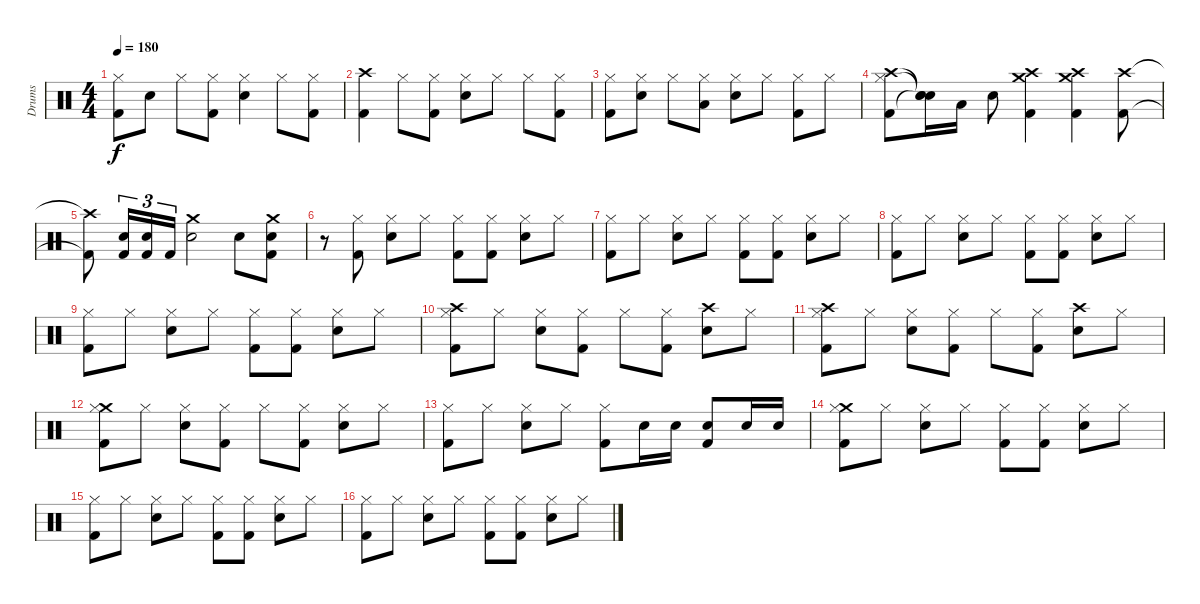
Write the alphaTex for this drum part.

\track ("Drums" "Drums") {instrument percussion}
\staff {score}
\articulation defaults
\ts (4 4)
\tempo 180
\clef neutral
\ks c
("Hi-Hat (closed)" "Kick (hit) 2").8{dy f} "Electric Snare (hit)".8 "Hi-Hat (closed)".8 ("Hi-Hat (closed)" "Kick (hit) 2").8 ("Hi-Hat (closed)" "Electric Snare (hit)").4 "Hi-Hat (closed)".8 ("Hi-Hat (closed)" "Kick (hit) 2").8 |
("Crash high (hit)" "Kick (hit) 2").4 "Hi-Hat (closed)".8 ("Hi-Hat (closed)" "Kick (hit) 2").8 ("Hi-Hat (closed)" "Electric Snare (hit)").8 "Hi-Hat (closed)".8 "Hi-Hat (closed)".8 ("Hi-Hat (closed)" "Kick (hit) 2").8 |
("Hi-Hat (closed)" "Kick (hit) 2").8 ("Hi-Hat (closed)" "Electric Snare (hit)").8 "Hi-Hat (closed)".8 ("Hi-Hat (closed)" "Low Tom (hit)").8 ("Hi-Hat (closed)" "Electric Snare (hit)").8 "Hi-Hat (closed)".8 ("Hi-Hat (closed)" "Kick (hit) 2").8 "Hi-Hat (closed)".8 |
("Crash high (hit)" "Hi-Hat (closed)" "Kick (hit) 2").8 ("Snare (hit)"{t} "Snare (hit)"{t} "Snare (hit)"{t}).16 "Low Tom (hit)".16 "Electric Snare (hit)".8 ("Crash medium (hit)" "Crash high (hit)" "Kick (hit) 2").4 ("Crash medium (hit)" "Crash high (hit)" "Kick (hit) 2").4 ("Crash high (hit)" "Kick (hit) 2").8 |
("Crash high (hit)"{t} "Kick (hit) 2"{t}).8 ("Electric Snare (hit)" "Kick (hit) 2").16{tu (3 2)} ("Electric Snare (hit)" "Kick (hit) 2").16{tu (3 2)} "Kick (hit) 2".16{tu (3 2)} ("Crash medium (hit)" "Electric Snare (hit)").2 "Electric Snare (hit)".8 ("Crash medium (hit)" "Electric Snare (hit)" "Kick (hit) 2").8 |
\section ("" "")
r.8 ("Hi-Hat (closed)" "Kick (hit) 2").8 ("Hi-Hat (closed)" "Electric Snare (hit)").8 "Hi-Hat (closed)".8 ("Hi-Hat (closed)" "Kick (hit) 2").8 ("Hi-Hat (closed)" "Kick (hit) 2").8 ("Hi-Hat (closed)" "Electric Snare (hit)").8 "Hi-Hat (closed)".8 |
("Hi-Hat (closed)" "Kick (hit) 2").8 "Hi-Hat (closed)".8 ("Hi-Hat (closed)" "Electric Snare (hit)").8 "Hi-Hat (closed)".8 ("Hi-Hat (closed)" "Kick (hit) 2").8 ("Hi-Hat (closed)" "Kick (hit) 2").8 ("Hi-Hat (closed)" "Electric Snare (hit)").8 "Hi-Hat (closed)".8 |
("Hi-Hat (closed)" "Kick (hit) 2").8 "Hi-Hat (closed)".8 ("Hi-Hat (closed)" "Electric Snare (hit)").8 "Hi-Hat (closed)".8 ("Hi-Hat (closed)" "Kick (hit) 2").8 ("Hi-Hat (closed)" "Kick (hit) 2").8 ("Hi-Hat (closed)" "Electric Snare (hit)").8 "Hi-Hat (closed)".8 |
("Hi-Hat (closed)" "Kick (hit) 2").8 "Hi-Hat (closed)".8 ("Hi-Hat (closed)" "Electric Snare (hit)").8 "Hi-Hat (closed)".8 ("Hi-Hat (closed)" "Kick (hit) 2").8 ("Hi-Hat (closed)" "Kick (hit) 2").8 ("Hi-Hat (closed)" "Electric Snare (hit)").8 "Hi-Hat (closed)".8 |
("Crash high (hit)" "Hi-Hat (closed)" "Kick (hit) 2").8 "Hi-Hat (closed)".8 ("Hi-Hat (closed)" "Electric Snare (hit)").8 ("Hi-Hat (closed)" "Kick (hit) 2").8 "Hi-Hat (closed)".8 ("Hi-Hat (closed)" "Kick (hit) 2").8 ("Crash high (hit)" "Electric Snare (hit)").8 "Hi-Hat (closed)".8 |
("Crash high (hit)" "Hi-Hat (closed)" "Kick (hit) 2").8 "Hi-Hat (closed)".8 ("Hi-Hat (closed)" "Electric Snare (hit)").8 ("Hi-Hat (closed)" "Kick (hit) 2").8 "Hi-Hat (closed)".8 ("Hi-Hat (closed)" "Kick (hit) 2").8 ("Crash high (hit)" "Electric Snare (hit)").8 "Hi-Hat (closed)".8 |
("Crash medium (hit)" "Hi-Hat (closed)" "Kick (hit) 2").8 "Hi-Hat (closed)".8 ("Hi-Hat (closed)" "Electric Snare (hit)").8 ("Hi-Hat (closed)" "Kick (hit) 2").8 "Hi-Hat (closed)".8 ("Hi-Hat (closed)" "Kick (hit) 2").8 ("Hi-Hat (closed)" "Electric Snare (hit)").8 "Hi-Hat (closed)".8 |
("Hi-Hat (closed)" "Kick (hit) 2").8 "Hi-Hat (closed)".8 ("Hi-Hat (closed)" "Electric Snare (hit)").8 "Hi-Hat (closed)".8 ("Hi-Hat (closed)" "Kick (hit) 2").8 "Electric Snare (hit)".16 "Electric Snare (hit)".16 ("Electric Snare (hit)" "Kick (hit) 2").8 "Electric Snare (hit)".16 "Electric Snare (hit)".16 |
("Crash medium (hit)" "Hi-Hat (closed)" "Kick (hit) 2").8 "Hi-Hat (closed)".8 ("Hi-Hat (closed)" "Electric Snare (hit)").8 "Hi-Hat (closed)".8 ("Hi-Hat (closed)" "Kick (hit) 2").8 ("Hi-Hat (closed)" "Kick (hit) 2").8 ("Hi-Hat (closed)" "Electric Snare (hit)").8 "Hi-Hat (closed)".8 |
("Hi-Hat (closed)" "Kick (hit) 2").8 "Hi-Hat (closed)".8 ("Hi-Hat (closed)" "Electric Snare (hit)").8 "Hi-Hat (closed)".8 ("Hi-Hat (closed)" "Kick (hit) 2").8 ("Hi-Hat (closed)" "Kick (hit) 2").8 ("Hi-Hat (closed)" "Electric Snare (hit)").8 "Hi-Hat (closed)".8 |
("Hi-Hat (closed)" "Kick (hit) 2").8 "Hi-Hat (closed)".8 ("Hi-Hat (closed)" "Electric Snare (hit)").8 "Hi-Hat (closed)".8 ("Hi-Hat (closed)" "Kick (hit) 2").8 ("Hi-Hat (closed)" "Kick (hit) 2").8 ("Hi-Hat (closed)" "Electric Snare (hit)").8 "Hi-Hat (closed)".8
